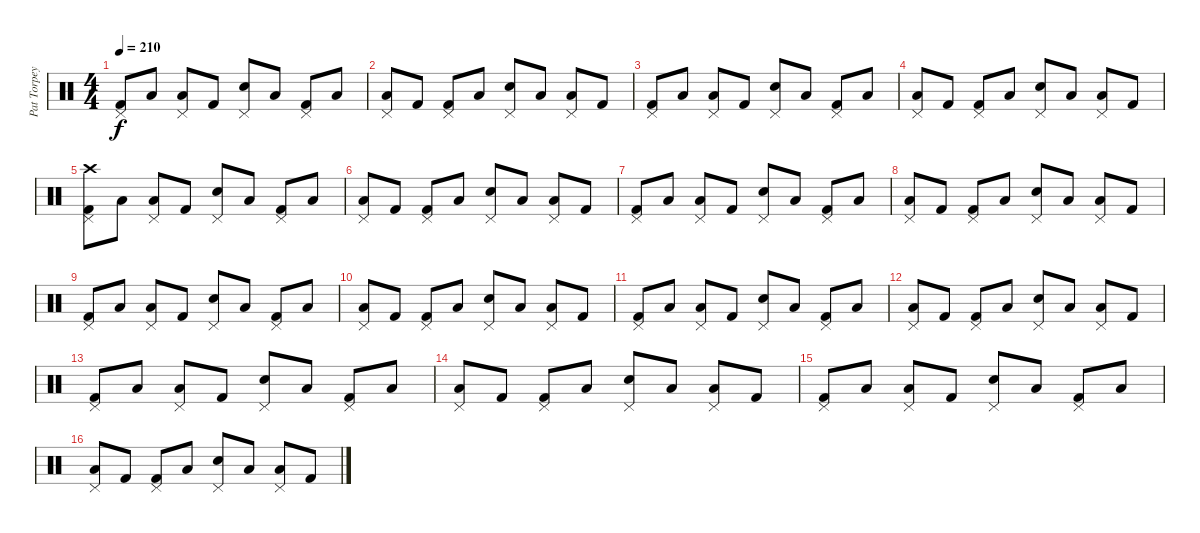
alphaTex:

\track ("Pat Torpey" "Pat Torpey") {instrument percussion}
\staff {score}
\articulation defaults
\ts (4 4)
\tempo 210
\clef neutral
\ks c
("Pedal Hi-Hat (hit)" "Kick (hit) 2").8{dy f} "Low Floor Tom (hit)".8 ("Pedal Hi-Hat (hit)" "Low Floor Tom (hit)").8 "Kick (hit) 2".8 ("Pedal Hi-Hat (hit)" "Snare (hit) 2").8 "Low Floor Tom (hit)".8 ("Pedal Hi-Hat (hit)" "Kick (hit) 2").8 "Low Floor Tom (hit)".8 |
("Pedal Hi-Hat (hit)" "Low Floor Tom (hit)").8 "Kick (hit) 2".8 ("Pedal Hi-Hat (hit)" "Kick (hit) 2").8 "Low Floor Tom (hit)".8 ("Pedal Hi-Hat (hit)" "Snare (hit) 2").8 "Low Floor Tom (hit)".8 ("Pedal Hi-Hat (hit)" "Low Floor Tom (hit)").8 "Kick (hit) 2".8 |
("Pedal Hi-Hat (hit)" "Kick (hit) 2").8 "Low Floor Tom (hit)".8 ("Pedal Hi-Hat (hit)" "Low Floor Tom (hit)").8 "Kick (hit) 2".8 ("Pedal Hi-Hat (hit)" "Snare (hit) 2").8 "Low Floor Tom (hit)".8 ("Pedal Hi-Hat (hit)" "Kick (hit) 2").8 "Low Floor Tom (hit)".8 |
("Pedal Hi-Hat (hit)" "Low Floor Tom (hit)").8 "Kick (hit) 2".8 ("Pedal Hi-Hat (hit)" "Kick (hit) 2").8 "Low Floor Tom (hit)".8 ("Pedal Hi-Hat (hit)" "Snare (hit) 2").8 "Low Floor Tom (hit)".8 ("Pedal Hi-Hat (hit)" "Low Floor Tom (hit)").8 "Kick (hit) 2".8 |
("Crash high (hit)" "Pedal Hi-Hat (hit)" "Kick (hit) 2").8 "Low Floor Tom (hit)".8 ("Pedal Hi-Hat (hit)" "Low Floor Tom (hit)").8 "Kick (hit) 2".8 ("Pedal Hi-Hat (hit)" "Snare (hit) 2").8 "Low Floor Tom (hit)".8 ("Pedal Hi-Hat (hit)" "Kick (hit) 2").8 "Low Floor Tom (hit)".8 |
("Pedal Hi-Hat (hit)" "Low Floor Tom (hit)").8 "Kick (hit) 2".8 ("Pedal Hi-Hat (hit)" "Kick (hit) 2").8 "Low Floor Tom (hit)".8 ("Pedal Hi-Hat (hit)" "Snare (hit) 2").8 "Low Floor Tom (hit)".8 ("Pedal Hi-Hat (hit)" "Low Floor Tom (hit)").8 "Kick (hit) 2".8 |
("Pedal Hi-Hat (hit)" "Kick (hit) 2").8 "Low Floor Tom (hit)".8 ("Pedal Hi-Hat (hit)" "Low Floor Tom (hit)").8 "Kick (hit) 2".8 ("Pedal Hi-Hat (hit)" "Snare (hit) 2").8 "Low Floor Tom (hit)".8 ("Pedal Hi-Hat (hit)" "Kick (hit) 2").8 "Low Floor Tom (hit)".8 |
("Pedal Hi-Hat (hit)" "Low Floor Tom (hit)").8 "Kick (hit) 2".8 ("Pedal Hi-Hat (hit)" "Kick (hit) 2").8 "Low Floor Tom (hit)".8 ("Pedal Hi-Hat (hit)" "Snare (hit) 2").8 "Low Floor Tom (hit)".8 ("Pedal Hi-Hat (hit)" "Low Floor Tom (hit)").8 "Kick (hit) 2".8 |
("Pedal Hi-Hat (hit)" "Kick (hit) 2").8 "Low Floor Tom (hit)".8 ("Pedal Hi-Hat (hit)" "Low Floor Tom (hit)").8 "Kick (hit) 2".8 ("Pedal Hi-Hat (hit)" "Snare (hit) 2").8 "Low Floor Tom (hit)".8 ("Pedal Hi-Hat (hit)" "Kick (hit) 2").8 "Low Floor Tom (hit)".8 |
("Pedal Hi-Hat (hit)" "Low Floor Tom (hit)").8 "Kick (hit) 2".8 ("Pedal Hi-Hat (hit)" "Kick (hit) 2").8 "Low Floor Tom (hit)".8 ("Pedal Hi-Hat (hit)" "Snare (hit) 2").8 "Low Floor Tom (hit)".8 ("Pedal Hi-Hat (hit)" "Low Floor Tom (hit)").8 "Kick (hit) 2".8 |
("Pedal Hi-Hat (hit)" "Kick (hit) 2").8 "Low Floor Tom (hit)".8 ("Pedal Hi-Hat (hit)" "Low Floor Tom (hit)").8 "Kick (hit) 2".8 ("Pedal Hi-Hat (hit)" "Snare (hit) 2").8 "Low Floor Tom (hit)".8 ("Pedal Hi-Hat (hit)" "Kick (hit) 2").8 "Low Floor Tom (hit)".8 |
("Pedal Hi-Hat (hit)" "Low Floor Tom (hit)").8 "Kick (hit) 2".8 ("Pedal Hi-Hat (hit)" "Kick (hit) 2").8 "Low Floor Tom (hit)".8 ("Pedal Hi-Hat (hit)" "Snare (hit) 2").8 "Low Floor Tom (hit)".8 ("Pedal Hi-Hat (hit)" "Low Floor Tom (hit)").8 "Kick (hit) 2".8 |
("Pedal Hi-Hat (hit)" "Kick (hit) 2").8 "Low Floor Tom (hit)".8 ("Pedal Hi-Hat (hit)" "Low Floor Tom (hit)").8 "Kick (hit) 2".8 ("Pedal Hi-Hat (hit)" "Snare (hit) 2").8 "Low Floor Tom (hit)".8 ("Pedal Hi-Hat (hit)" "Kick (hit) 2").8 "Low Floor Tom (hit)".8 |
("Pedal Hi-Hat (hit)" "Low Floor Tom (hit)").8 "Kick (hit) 2".8 ("Pedal Hi-Hat (hit)" "Kick (hit) 2").8 "Low Floor Tom (hit)".8 ("Pedal Hi-Hat (hit)" "Snare (hit) 2").8 "Low Floor Tom (hit)".8 ("Pedal Hi-Hat (hit)" "Low Floor Tom (hit)").8 "Kick (hit) 2".8 |
("Pedal Hi-Hat (hit)" "Kick (hit) 2").8 "Low Floor Tom (hit)".8 ("Pedal Hi-Hat (hit)" "Low Floor Tom (hit)").8 "Kick (hit) 2".8 ("Pedal Hi-Hat (hit)" "Snare (hit) 2").8 "Low Floor Tom (hit)".8 ("Pedal Hi-Hat (hit)" "Kick (hit) 2").8 "Low Floor Tom (hit)".8 |
("Pedal Hi-Hat (hit)" "Low Floor Tom (hit)").8 "Kick (hit) 2".8 ("Pedal Hi-Hat (hit)" "Kick (hit) 2").8 "Low Floor Tom (hit)".8 ("Pedal Hi-Hat (hit)" "Snare (hit) 2").8 "Low Floor Tom (hit)".8 ("Pedal Hi-Hat (hit)" "Low Floor Tom (hit)").8 "Kick (hit) 2".8
